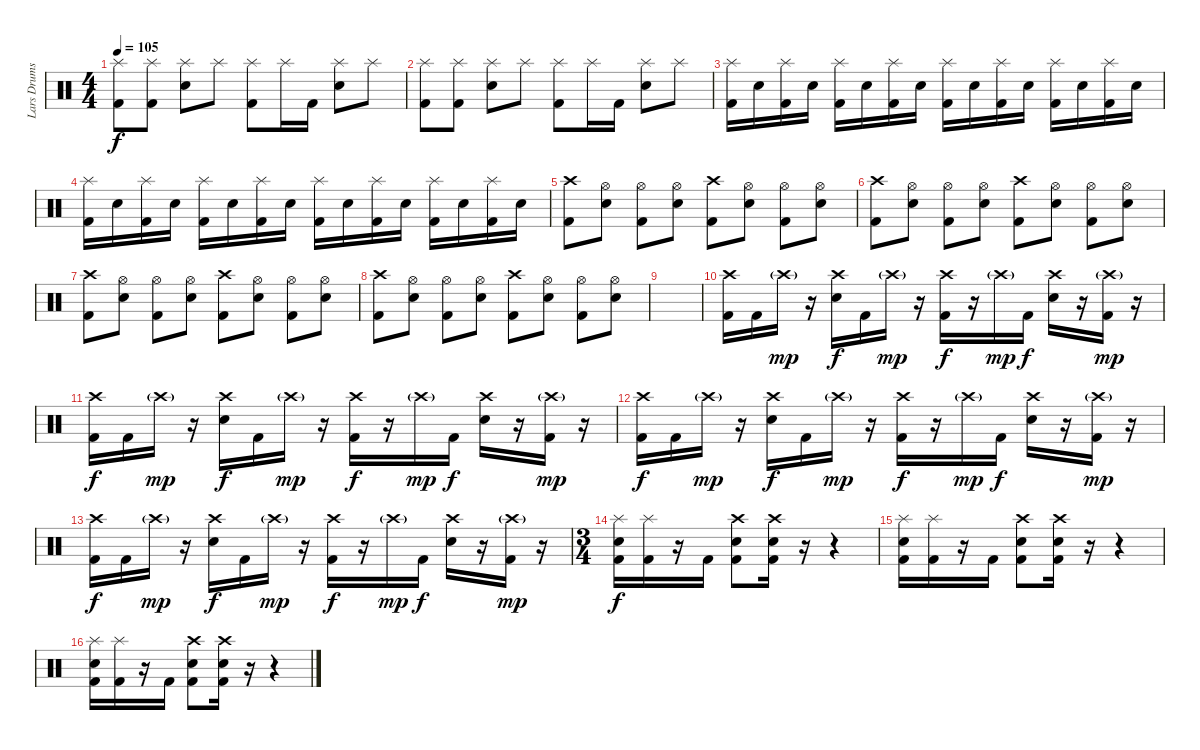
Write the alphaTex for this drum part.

\track ("Lars Drums" "Lars Drums") {instrument percussion}
\staff {score}
\articulation defaults
\ts (4 4)
\tempo 105
\clef neutral
\ks c
("Splash (hit)" "Kick (hit) 2").8{dy f} ("Splash (hit)" "Kick (hit) 2").8 ("Splash (hit)" "Snare (hit) 2").8 "Splash (hit)".8 ("Splash (hit)" "Kick (hit) 2").8 "Splash (hit)".16 "Kick (hit) 2".16 ("Splash (hit)" "Snare (hit) 2").8 "Splash (hit)".8 |
("Splash (hit)" "Kick (hit) 2").8 ("Splash (hit)" "Kick (hit) 2").8 ("Splash (hit)" "Snare (hit) 2").8 "Splash (hit)".8 ("Splash (hit)" "Kick (hit) 2").8 "Splash (hit)".16 "Kick (hit) 2".16 ("Splash (hit)" "Snare (hit) 2").8 "Splash (hit)".8 |
("Splash (hit)" "Kick (hit) 2").16 "Snare (hit) 2".16 ("Splash (hit)" "Kick (hit) 2").16 "Snare (hit) 2".16 ("Splash (hit)" "Kick (hit) 2").16 "Snare (hit) 2".16 ("Splash (hit)" "Kick (hit) 2").16 "Snare (hit) 2".16 ("Splash (hit)" "Kick (hit) 2").16 "Snare (hit) 2".16 ("Splash (hit)" "Kick (hit) 2").16 "Snare (hit) 2".16 ("Splash (hit)" "Kick (hit) 2").16 "Snare (hit) 2".16 ("Splash (hit)" "Kick (hit) 2").16 "Snare (hit) 2".16 |
("Splash (hit)" "Kick (hit) 2").16 "Snare (hit) 2".16 ("Splash (hit)" "Kick (hit) 2").16 "Snare (hit) 2".16 ("Splash (hit)" "Kick (hit) 2").16 "Snare (hit) 2".16 ("Splash (hit)" "Kick (hit) 2").16 "Snare (hit) 2".16 ("Splash (hit)" "Kick (hit) 2").16 "Snare (hit) 2".16 ("Splash (hit)" "Kick (hit) 2").16 "Snare (hit) 2".16 ("Splash (hit)" "Kick (hit) 2").16 "Snare (hit) 2".16 ("Splash (hit)" "Kick (hit) 2").16 "Snare (hit) 2".16 |
("Crash high (hit)" "Kick (hit) 2").8 ("Hi-Hat (open)" "Snare (hit) 2").8 ("Hi-Hat (open)" "Kick (hit) 2").8 ("Hi-Hat (open)" "Snare (hit) 2").8 ("Crash high (hit)" "Kick (hit) 2").8 ("Hi-Hat (open)" "Snare (hit) 2").8 ("Hi-Hat (open)" "Kick (hit) 2").8 ("Hi-Hat (open)" "Snare (hit) 2").8 |
("Crash high (hit)" "Kick (hit) 2").8 ("Hi-Hat (open)" "Snare (hit) 2").8 ("Hi-Hat (open)" "Kick (hit) 2").8 ("Hi-Hat (open)" "Snare (hit) 2").8 ("Crash high (hit)" "Kick (hit) 2").8 ("Hi-Hat (open)" "Snare (hit) 2").8 ("Hi-Hat (open)" "Kick (hit) 2").8 ("Hi-Hat (open)" "Snare (hit) 2").8 |
("Crash high (hit)" "Kick (hit) 2").8 ("Hi-Hat (open)" "Snare (hit) 2").8 ("Hi-Hat (open)" "Kick (hit) 2").8 ("Hi-Hat (open)" "Snare (hit) 2").8 ("Crash high (hit)" "Kick (hit) 2").8 ("Hi-Hat (open)" "Snare (hit) 2").8 ("Hi-Hat (open)" "Kick (hit) 2").8 ("Hi-Hat (open)" "Snare (hit) 2").8 |
("Crash high (hit)" "Kick (hit) 2").8 ("Hi-Hat (open)" "Snare (hit) 2").8 ("Hi-Hat (open)" "Kick (hit) 2").8 ("Hi-Hat (open)" "Snare (hit) 2").8 ("Crash high (hit)" "Kick (hit) 2").8 ("Hi-Hat (open)" "Snare (hit) 2").8 ("Hi-Hat (open)" "Kick (hit) 2").8 ("Hi-Hat (open)" "Snare (hit) 2").8 |
|
("Crash high (hit)" "Kick (hit) 2").16 "Kick (hit) 2".16 "Crash high (hit)"{g}.16{dy mp} r.16 ("Crash high (hit)" "Snare (hit) 2").16{dy f} "Kick (hit) 2".16 "Crash high (hit)"{g}.16{dy mp} r.16 ("Crash high (hit)" "Kick (hit) 2").16{dy f} r.16 "Crash high (hit)"{g}.16{dy mp} "Kick (hit) 2".16{dy f} ("Crash high (hit)" "Snare (hit) 2").16 r.16 ("Crash high (hit)"{g} "Kick (hit) 2").16{dy mp} r.16 |
("Crash high (hit)" "Kick (hit) 2").16{dy f} "Kick (hit) 2".16 "Crash high (hit)"{g}.16{dy mp} r.16 ("Crash high (hit)" "Snare (hit) 2").16{dy f} "Kick (hit) 2".16 "Crash high (hit)"{g}.16{dy mp} r.16 ("Crash high (hit)" "Kick (hit) 2").16{dy f} r.16 "Crash high (hit)"{g}.16{dy mp} "Kick (hit) 2".16{dy f} ("Crash high (hit)" "Snare (hit) 2").16 r.16 ("Crash high (hit)"{g} "Kick (hit) 2").16{dy mp} r.16 |
("Crash high (hit)" "Kick (hit) 2").16{dy f} "Kick (hit) 2".16 "Crash high (hit)"{g}.16{dy mp} r.16 ("Crash high (hit)" "Snare (hit) 2").16{dy f} "Kick (hit) 2".16 "Crash high (hit)"{g}.16{dy mp} r.16 ("Crash high (hit)" "Kick (hit) 2").16{dy f} r.16 "Crash high (hit)"{g}.16{dy mp} "Kick (hit) 2".16{dy f} ("Crash high (hit)" "Snare (hit) 2").16 r.16 ("Crash high (hit)"{g} "Kick (hit) 2").16{dy mp} r.16 |
("Crash high (hit)" "Kick (hit) 2").16{dy f} "Kick (hit) 2".16 "Crash high (hit)"{g}.16{dy mp} r.16 ("Crash high (hit)" "Snare (hit) 2").16{dy f} "Kick (hit) 2".16 "Crash high (hit)"{g}.16{dy mp} r.16 ("Crash high (hit)" "Kick (hit) 2").16{dy f} r.16 "Crash high (hit)"{g}.16{dy mp} "Kick (hit) 2".16{dy f} ("Crash high (hit)" "Snare (hit) 2").16 r.16 ("Crash high (hit)"{g} "Kick (hit) 2").16{dy mp} r.16 |
\ts (3 4)
("Splash (hit)" "Snare (hit) 2" "Kick (hit) 2").16{dy f} ("Splash (hit)" "Kick (hit) 2").16 r.16 "Kick (hit) 2".16 ("Crash high (hit)" "Snare (hit) 2" "Kick (hit) 2").8 ("Crash high (hit)" "Snare (hit) 2" "Kick (hit) 2").16 r.16 r.4 |
("Splash (hit)" "Snare (hit) 2" "Kick (hit) 2").16 ("Splash (hit)" "Kick (hit) 2").16 r.16 "Kick (hit) 2".16 ("Crash high (hit)" "Snare (hit) 2" "Kick (hit) 2").8 ("Crash high (hit)" "Snare (hit) 2" "Kick (hit) 2").16 r.16 r.4 |
("Splash (hit)" "Snare (hit) 2" "Kick (hit) 2").16 ("Splash (hit)" "Kick (hit) 2").16 r.16 "Kick (hit) 2".16 ("Crash high (hit)" "Snare (hit) 2" "Kick (hit) 2").8 ("Crash high (hit)" "Snare (hit) 2" "Kick (hit) 2").16 r.16 r.4
